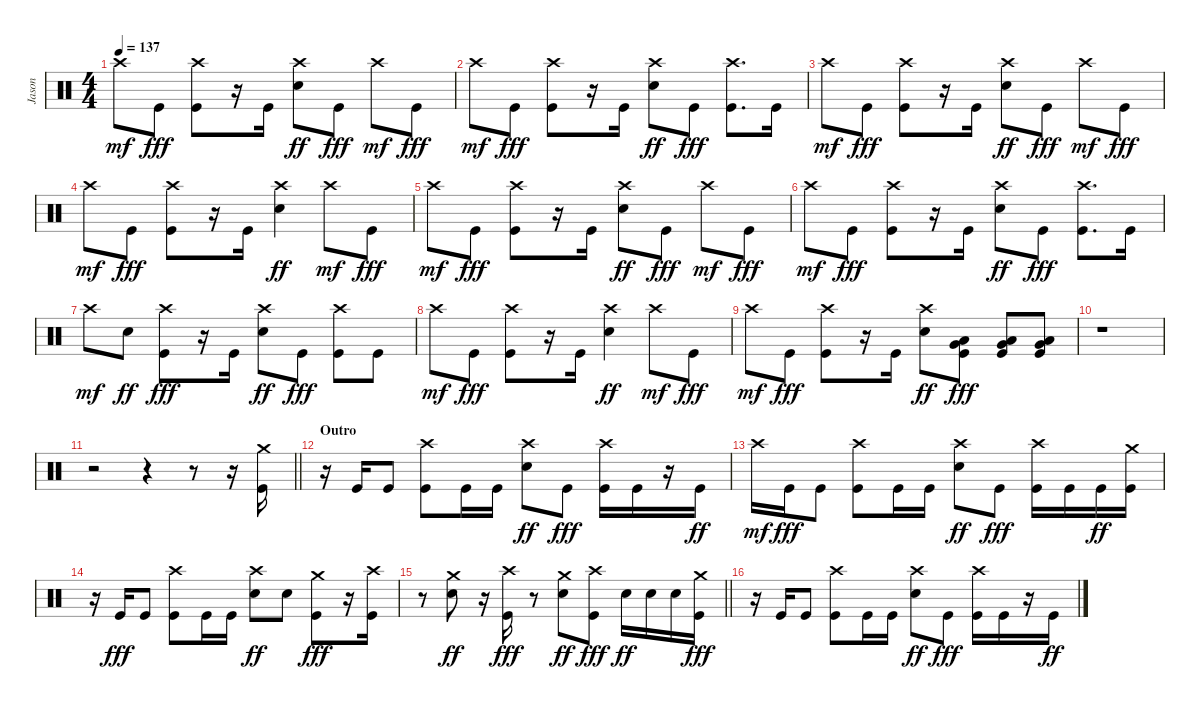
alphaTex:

\track ("Jason" "Jason") {instrument percussion}
\staff {score}
\articulation defaults
\ts (4 4)
\tempo 137
\clef neutral
\ks c "Crash high (hit)".8{dy mf} "Kick (hit)".8{dy fff}
("Crash high (hit)" "Kick (hit)").8 r.16 "Kick (hit)".16 ("Crash high (hit)" "Electric Snare (hit)").8{dy ff} "Kick (hit)".8{dy fff} "Crash high (hit)".8{dy mf} "Kick (hit)".8{dy fff} |
"Crash high (hit)".8{dy mf} "Kick (hit)".8{dy fff} ("Crash high (hit)" "Kick (hit)").8 r.16 "Kick (hit)".16 ("Crash high (hit)" "Electric Snare (hit)").8{dy ff} "Kick (hit)".8{dy fff} ("Crash high (hit)" "Kick (hit)").8{d} "Kick (hit)".16 |
"Crash high (hit)".8{dy mf} "Kick (hit)".8{dy fff} ("Crash high (hit)" "Kick (hit)").8 r.16 "Kick (hit)".16 ("Crash high (hit)" "Electric Snare (hit)").8{dy ff} "Kick (hit)".8{dy fff} "Crash high (hit)".8{dy mf} "Kick (hit)".8{dy fff} |
"Crash high (hit)".8{dy mf} "Kick (hit)".8{dy fff} ("Crash high (hit)" "Kick (hit)").8 r.16 "Kick (hit)".16 ("Crash high (hit)" "Electric Snare (hit)").4{dy ff} "Crash high (hit)".8{dy mf} "Kick (hit)".8{dy fff} |
"Crash high (hit)".8{dy mf} "Kick (hit)".8{dy fff} ("Crash high (hit)" "Kick (hit)").8 r.16 "Kick (hit)".16 ("Crash high (hit)" "Electric Snare (hit)").8{dy ff} "Kick (hit)".8{dy fff} "Crash high (hit)".8{dy mf} "Kick (hit)".8{dy fff} |
"Crash high (hit)".8{dy mf} "Kick (hit)".8{dy fff} ("Crash high (hit)" "Kick (hit)").8 r.16 "Kick (hit)".16 ("Crash high (hit)" "Electric Snare (hit)").8{dy ff} "Kick (hit)".8{dy fff} ("Crash high (hit)" "Kick (hit)").8{d} "Kick (hit)".16 |
"Crash high (hit)".8{dy mf} "Electric Snare (hit)".8{dy ff} ("Crash high (hit)" "Kick (hit)").8{dy fff} r.16 "Kick (hit)".16 ("Crash high (hit)" "Electric Snare (hit)").8{dy ff} "Kick (hit)".8{dy fff} ("Crash high (hit)" "Kick (hit)").8 "Kick (hit)".8 |
"Crash high (hit)".8{dy mf} "Kick (hit)".8{dy fff} ("Crash high (hit)" "Kick (hit)").8 r.16 "Kick (hit)".16 ("Crash high (hit)" "Electric Snare (hit)").4{dy ff} "Crash high (hit)".8{dy mf} "Kick (hit)".8{dy fff} |
"Crash high (hit)".8{dy mf} "Kick (hit)".8{dy fff} ("Crash high (hit)" "Kick (hit)").8 r.16 "Kick (hit)".16 ("Crash high (hit)" "Electric Snare (hit)").8{dy ff} ("Very Low Tom (hit)" "Low Floor Tom (hit)" "Kick (hit)").8{dy fff} ("Very Low Tom (hit)" "Low Floor Tom (hit)" "Kick (hit)").8 ("Very Low Tom (hit)" "Low Floor Tom (hit)" "Kick (hit)").8 |
r.1 |
\barLineRight lightlight
r.2 r.4 r.8 r.16 ("Crash medium (hit)" "Kick (hit)").16 |
\section ("" "Outro")
r.16 "Kick (hit)".16 "Kick (hit)".8 ("Crash high (hit)" "Kick (hit)").8 "Kick (hit)".16 "Kick (hit)".16 ("Crash high (hit)" "Electric Snare (hit)").8{dy ff} "Kick (hit)".8{dy fff} ("Crash high (hit)" "Kick (hit)").16 "Kick (hit)".16 r.16 "Kick (hit)".16{dy ff} |
"Crash high (hit)".16{dy mf} "Kick (hit)".16{dy fff} "Kick (hit)".8 ("Crash high (hit)" "Kick (hit)").8 "Kick (hit)".16 "Kick (hit)".16 ("Crash high (hit)" "Electric Snare (hit)").8{dy ff} "Kick (hit)".8{dy fff} ("Crash high (hit)" "Kick (hit)").16 "Kick (hit)".16 "Kick (hit)".16{dy ff} ("Crash medium (hit)" "Kick (hit)").16 |
r.16 "Kick (hit)".16{dy fff} "Kick (hit)".8 ("Crash high (hit)" "Kick (hit)").8 "Kick (hit)".16 "Kick (hit)".16 ("Crash high (hit)" "Electric Snare (hit)").8{dy ff} "Electric Snare (hit)".8 ("Crash medium (hit)" "Kick (hit)").8{dy fff} r.16 ("Crash high (hit)" "Kick (hit)").16 |
\barLineRight lightlight
r.8 ("Crash medium (hit)" "Electric Snare (hit)").8{dy ff} r.16 ("Crash high (hit)" "Kick (hit)").16{dy fff} r.8 ("Crash medium (hit)" "Electric Snare (hit)").8{dy ff} ("Crash high (hit)" "Kick (hit)").8{dy fff} "Electric Snare (hit)".16{dy ff} "Electric Snare (hit)".16 "Electric Snare (hit)".16 ("Crash medium (hit)" "Kick (hit)").16{dy fff} |
r.16 "Kick (hit)".16 "Kick (hit)".8 ("Crash high (hit)" "Kick (hit)").8 "Kick (hit)".16 "Kick (hit)".16 ("Crash high (hit)" "Electric Snare (hit)").8{dy ff} "Kick (hit)".8{dy fff} ("Crash high (hit)" "Kick (hit)").16 "Kick (hit)".16 r.16 "Kick (hit)".16{dy ff}
